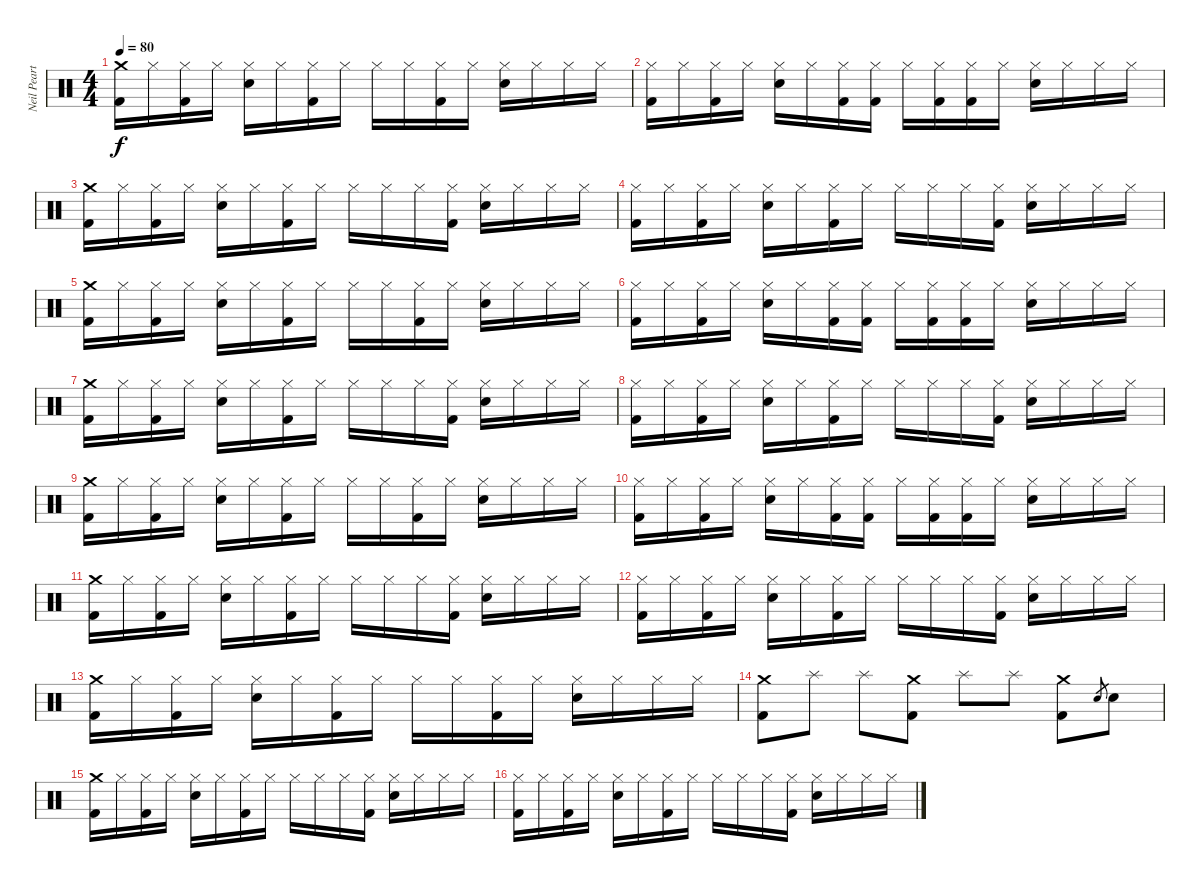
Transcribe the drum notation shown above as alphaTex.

\track ("Neil Peart" "Neil Peart") {instrument percussion}
\staff {score}
\articulation defaults
\ts (4 4)
\tempo 80
\clef neutral
\ks c
("Crash medium (hit)" "Kick (hit) 2").16{dy f} "Hi-Hat (closed)".16 ("Hi-Hat (closed)" "Kick (hit) 2").16 "Hi-Hat (closed)".16 ("Hi-Hat (closed)" "Electric Snare (hit)").16 "Hi-Hat (closed)".16 ("Hi-Hat (closed)" "Kick (hit) 2").16 "Hi-Hat (closed)".16 "Hi-Hat (closed)".16 "Hi-Hat (closed)".16 ("Hi-Hat (closed)" "Kick (hit) 2").16 "Hi-Hat (closed)".16 ("Hi-Hat (closed)" "Electric Snare (hit)").16 "Hi-Hat (closed)".16 "Hi-Hat (closed)".16 "Hi-Hat (closed)".16 |
("Hi-Hat (closed)" "Kick (hit) 2").16 "Hi-Hat (closed)".16 ("Hi-Hat (closed)" "Kick (hit) 2").16 "Hi-Hat (closed)".16 ("Hi-Hat (closed)" "Electric Snare (hit)").16 "Hi-Hat (closed)".16 ("Hi-Hat (closed)" "Kick (hit) 2").16 ("Hi-Hat (closed)" "Kick (hit) 2").16 "Hi-Hat (closed)".16 ("Hi-Hat (closed)" "Kick (hit) 2").16 ("Hi-Hat (closed)" "Kick (hit) 2").16 "Hi-Hat (closed)".16 ("Hi-Hat (closed)" "Electric Snare (hit)").16 "Hi-Hat (closed)".16 "Hi-Hat (closed)".16 "Hi-Hat (closed)".16 |
("Crash medium (hit)" "Kick (hit) 2").16 "Hi-Hat (closed)".16 ("Hi-Hat (closed)" "Kick (hit) 2").16 "Hi-Hat (closed)".16 ("Hi-Hat (closed)" "Electric Snare (hit)").16 "Hi-Hat (closed)".16 ("Hi-Hat (closed)" "Kick (hit) 2").16 "Hi-Hat (closed)".16 "Hi-Hat (closed)".16 "Hi-Hat (closed)".16 "Hi-Hat (closed)".16 ("Hi-Hat (closed)" "Kick (hit) 2").16 ("Hi-Hat (closed)" "Electric Snare (hit)").16 "Hi-Hat (closed)".16 "Hi-Hat (closed)".16 "Hi-Hat (closed)".16 |
("Hi-Hat (closed)" "Kick (hit) 2").16 "Hi-Hat (closed)".16 ("Hi-Hat (closed)" "Kick (hit) 2").16 "Hi-Hat (closed)".16 ("Hi-Hat (closed)" "Electric Snare (hit)").16 "Hi-Hat (closed)".16 ("Hi-Hat (closed)" "Kick (hit) 2").16 "Hi-Hat (closed)".16 "Hi-Hat (closed)".16 "Hi-Hat (closed)".16 "Hi-Hat (closed)".16 ("Hi-Hat (closed)" "Kick (hit) 2").16 ("Hi-Hat (closed)" "Electric Snare (hit)").16 "Hi-Hat (closed)".16 "Hi-Hat (closed)".16 "Hi-Hat (closed)".16 |
("Crash medium (hit)" "Kick (hit) 2").16 "Hi-Hat (closed)".16 ("Hi-Hat (closed)" "Kick (hit) 2").16 "Hi-Hat (closed)".16 ("Hi-Hat (closed)" "Electric Snare (hit)").16 "Hi-Hat (closed)".16 ("Hi-Hat (closed)" "Kick (hit) 2").16 "Hi-Hat (closed)".16 "Hi-Hat (closed)".16 "Hi-Hat (closed)".16 ("Hi-Hat (closed)" "Kick (hit) 2").16 "Hi-Hat (closed)".16 ("Hi-Hat (closed)" "Electric Snare (hit)").16 "Hi-Hat (closed)".16 "Hi-Hat (closed)".16 "Hi-Hat (closed)".16 |
("Hi-Hat (closed)" "Kick (hit) 2").16 "Hi-Hat (closed)".16 ("Hi-Hat (closed)" "Kick (hit) 2").16 "Hi-Hat (closed)".16 ("Hi-Hat (closed)" "Electric Snare (hit)").16 "Hi-Hat (closed)".16 ("Hi-Hat (closed)" "Kick (hit) 2").16 ("Hi-Hat (closed)" "Kick (hit) 2").16 "Hi-Hat (closed)".16 ("Hi-Hat (closed)" "Kick (hit) 2").16 ("Hi-Hat (closed)" "Kick (hit) 2").16 "Hi-Hat (closed)".16 ("Hi-Hat (closed)" "Electric Snare (hit)").16 "Hi-Hat (closed)".16 "Hi-Hat (closed)".16 "Hi-Hat (closed)".16 |
("Crash medium (hit)" "Kick (hit) 2").16 "Hi-Hat (closed)".16 ("Hi-Hat (closed)" "Kick (hit) 2").16 "Hi-Hat (closed)".16 ("Hi-Hat (closed)" "Electric Snare (hit)").16 "Hi-Hat (closed)".16 ("Hi-Hat (closed)" "Kick (hit) 2").16 "Hi-Hat (closed)".16 "Hi-Hat (closed)".16 "Hi-Hat (closed)".16 "Hi-Hat (closed)".16 ("Hi-Hat (closed)" "Kick (hit) 2").16 ("Hi-Hat (closed)" "Electric Snare (hit)").16 "Hi-Hat (closed)".16 "Hi-Hat (closed)".16 "Hi-Hat (closed)".16 |
("Hi-Hat (closed)" "Kick (hit) 2").16 "Hi-Hat (closed)".16 ("Hi-Hat (closed)" "Kick (hit) 2").16 "Hi-Hat (closed)".16 ("Hi-Hat (closed)" "Electric Snare (hit)").16 "Hi-Hat (closed)".16 ("Hi-Hat (closed)" "Kick (hit) 2").16 "Hi-Hat (closed)".16 "Hi-Hat (closed)".16 "Hi-Hat (closed)".16 "Hi-Hat (closed)".16 ("Hi-Hat (closed)" "Kick (hit) 2").16 ("Hi-Hat (closed)" "Electric Snare (hit)").16 "Hi-Hat (closed)".16 "Hi-Hat (closed)".16 "Hi-Hat (closed)".16 |
("Crash medium (hit)" "Kick (hit) 2").16 "Hi-Hat (closed)".16 ("Hi-Hat (closed)" "Kick (hit) 2").16 "Hi-Hat (closed)".16 ("Hi-Hat (closed)" "Electric Snare (hit)").16 "Hi-Hat (closed)".16 ("Hi-Hat (closed)" "Kick (hit) 2").16 "Hi-Hat (closed)".16 "Hi-Hat (closed)".16 "Hi-Hat (closed)".16 ("Hi-Hat (closed)" "Kick (hit) 2").16 "Hi-Hat (closed)".16 ("Hi-Hat (closed)" "Electric Snare (hit)").16 "Hi-Hat (closed)".16 "Hi-Hat (closed)".16 "Hi-Hat (closed)".16 |
("Hi-Hat (closed)" "Kick (hit) 2").16 "Hi-Hat (closed)".16 ("Hi-Hat (closed)" "Kick (hit) 2").16 "Hi-Hat (closed)".16 ("Hi-Hat (closed)" "Electric Snare (hit)").16 "Hi-Hat (closed)".16 ("Hi-Hat (closed)" "Kick (hit) 2").16 ("Hi-Hat (closed)" "Kick (hit) 2").16 "Hi-Hat (closed)".16 ("Hi-Hat (closed)" "Kick (hit) 2").16 ("Hi-Hat (closed)" "Kick (hit) 2").16 "Hi-Hat (closed)".16 ("Hi-Hat (closed)" "Electric Snare (hit)").16 "Hi-Hat (closed)".16 "Hi-Hat (closed)".16 "Hi-Hat (closed)".16 |
("Crash medium (hit)" "Kick (hit) 2").16 "Hi-Hat (closed)".16 ("Hi-Hat (closed)" "Kick (hit) 2").16 "Hi-Hat (closed)".16 ("Hi-Hat (closed)" "Electric Snare (hit)").16 "Hi-Hat (closed)".16 ("Hi-Hat (closed)" "Kick (hit) 2").16 "Hi-Hat (closed)".16 "Hi-Hat (closed)".16 "Hi-Hat (closed)".16 "Hi-Hat (closed)".16 ("Hi-Hat (closed)" "Kick (hit) 2").16 ("Hi-Hat (closed)" "Electric Snare (hit)").16 "Hi-Hat (closed)".16 "Hi-Hat (closed)".16 "Hi-Hat (closed)".16 |
("Hi-Hat (closed)" "Kick (hit) 2").16 "Hi-Hat (closed)".16 ("Hi-Hat (closed)" "Kick (hit) 2").16 "Hi-Hat (closed)".16 ("Hi-Hat (closed)" "Electric Snare (hit)").16 "Hi-Hat (closed)".16 ("Hi-Hat (closed)" "Kick (hit) 2").16 "Hi-Hat (closed)".16 "Hi-Hat (closed)".16 "Hi-Hat (closed)".16 "Hi-Hat (closed)".16 ("Hi-Hat (closed)" "Kick (hit) 2").16 ("Hi-Hat (closed)" "Electric Snare (hit)").16 "Hi-Hat (closed)".16 "Hi-Hat (closed)".16 "Hi-Hat (closed)".16 |
("Crash medium (hit)" "Kick (hit) 2").16 "Hi-Hat (closed)".16 ("Hi-Hat (closed)" "Kick (hit) 2").16 "Hi-Hat (closed)".16 ("Hi-Hat (closed)" "Electric Snare (hit)").16 "Hi-Hat (closed)".16 ("Hi-Hat (closed)" "Kick (hit) 2").16 "Hi-Hat (closed)".16 "Hi-Hat (closed)".16 "Hi-Hat (closed)".16 ("Hi-Hat (closed)" "Kick (hit) 2").16 "Hi-Hat (closed)".16 ("Hi-Hat (closed)" "Electric Snare (hit)").16 "Hi-Hat (closed)".16 "Hi-Hat (closed)".16 "Hi-Hat (closed)".16 |
("Crash medium (hit)" "Kick (hit) 2").8 "Splash (hit)".8 "Splash (hit)".8 ("Crash medium (hit)" "Kick (hit) 2").8 "Splash (hit)".8 "Splash (hit)".8 ("Crash medium (hit)" "Kick (hit) 2").8 "Electric Snare (hit)".8{gr} "Electric Snare (hit)".8 |
("Crash medium (hit)" "Kick (hit) 2").16 "Hi-Hat (closed)".16 ("Hi-Hat (closed)" "Kick (hit) 2").16 "Hi-Hat (closed)".16 ("Hi-Hat (closed)" "Electric Snare (hit)").16 "Hi-Hat (closed)".16 ("Hi-Hat (closed)" "Kick (hit) 2").16 "Hi-Hat (closed)".16 "Hi-Hat (closed)".16 "Hi-Hat (closed)".16 "Hi-Hat (closed)".16 ("Hi-Hat (closed)" "Kick (hit) 2").16 ("Hi-Hat (closed)" "Electric Snare (hit)").16 "Hi-Hat (closed)".16 "Hi-Hat (closed)".16 "Hi-Hat (closed)".16 |
("Hi-Hat (closed)" "Kick (hit) 2").16 "Hi-Hat (closed)".16 ("Hi-Hat (closed)" "Kick (hit) 2").16 "Hi-Hat (closed)".16 ("Hi-Hat (closed)" "Electric Snare (hit)").16 "Hi-Hat (closed)".16 ("Hi-Hat (closed)" "Kick (hit) 2").16 "Hi-Hat (closed)".16 "Hi-Hat (closed)".16 "Hi-Hat (closed)".16 "Hi-Hat (closed)".16 ("Hi-Hat (closed)" "Kick (hit) 2").16 ("Hi-Hat (closed)" "Electric Snare (hit)").16 "Hi-Hat (closed)".16 "Hi-Hat (closed)".16 "Hi-Hat (closed)".16
